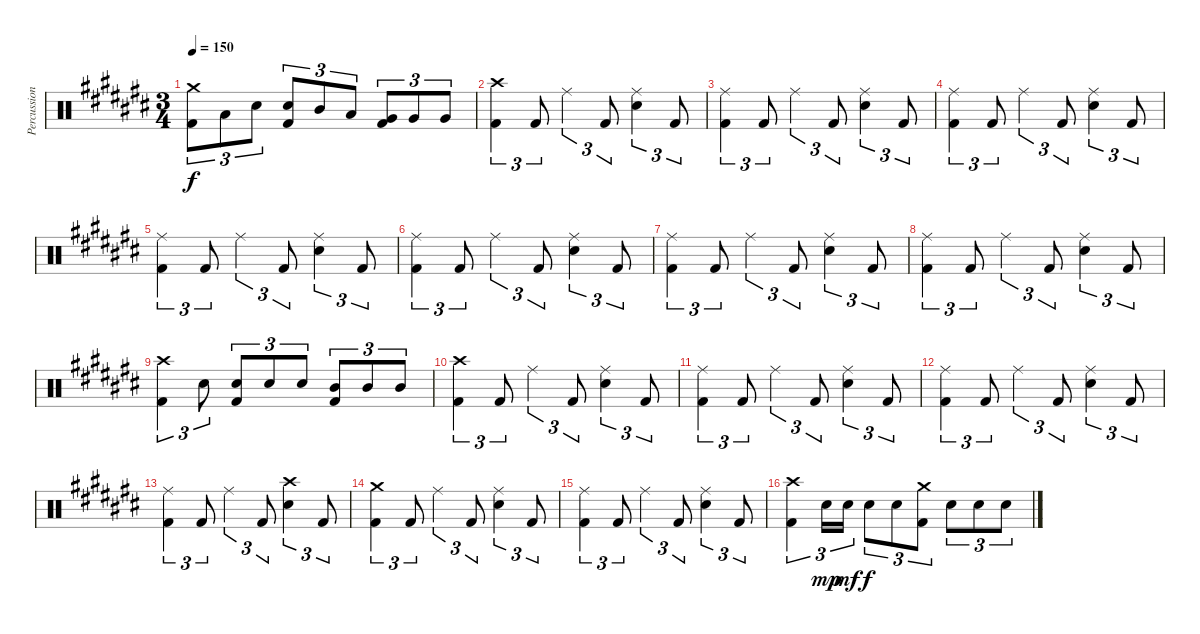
\track ("Percussion" "Percussion") {instrument percussion}
\staff {score}
\articulation defaults
\ts (3 4)
\tempo 150
\clef neutral
\ks c#
("Crash medium (hit)" "Kick (hit) 2").8{tu (3 2) dy f} "Low Tom (hit)".8{tu (3 2)} "Electric Snare (hit)".8{tu (3 2)} ("Electric Snare (hit)" "Kick (hit) 2").8{tu (3 2)} "Mid Tom (hit)".8{tu (3 2)} "Low Tom (hit)".8{tu (3 2)} ("Very Low Tom (hit)" "Kick (hit) 2").8{tu (3 2)} "Very Low Tom (hit)".8{tu (3 2)} "Very Low Tom (hit)".8{tu (3 2)} |
("Crash high (hit)" "Kick (hit) 2").4{tu (3 2)} "Kick (hit) 2".8{tu (3 2)} "Ride (middle)".4{tu (3 2)} "Kick (hit) 2".8{tu (3 2)} ("Ride (middle)" "Electric Snare (hit)").4{tu (3 2)} "Kick (hit) 2".8{tu (3 2)} |
("Ride (middle)" "Kick (hit) 2").4{tu (3 2)} "Kick (hit) 2".8{tu (3 2)} "Ride (middle)".4{tu (3 2)} "Kick (hit) 2".8{tu (3 2)} ("Ride (middle)" "Electric Snare (hit)").4{tu (3 2)} "Kick (hit) 2".8{tu (3 2)} |
("Ride (middle)" "Kick (hit) 2").4{tu (3 2)} "Kick (hit) 2".8{tu (3 2)} "Ride (middle)".4{tu (3 2)} "Kick (hit) 2".8{tu (3 2)} ("Ride (middle)" "Electric Snare (hit)").4{tu (3 2)} "Kick (hit) 2".8{tu (3 2)} |
("Ride (middle)" "Kick (hit) 2").4{tu (3 2)} "Kick (hit) 2".8{tu (3 2)} "Ride (middle)".4{tu (3 2)} "Kick (hit) 2".8{tu (3 2)} ("Ride (middle)" "Electric Snare (hit)").4{tu (3 2)} "Kick (hit) 2".8{tu (3 2)} |
("Ride (middle)" "Kick (hit) 2").4{tu (3 2)} "Kick (hit) 2".8{tu (3 2)} "Ride (middle)".4{tu (3 2)} "Kick (hit) 2".8{tu (3 2)} ("Ride (middle)" "Electric Snare (hit)").4{tu (3 2)} "Kick (hit) 2".8{tu (3 2)} |
("Ride (middle)" "Kick (hit) 2").4{tu (3 2)} "Kick (hit) 2".8{tu (3 2)} "Ride (middle)".4{tu (3 2)} "Kick (hit) 2".8{tu (3 2)} ("Ride (middle)" "Electric Snare (hit)").4{tu (3 2)} "Kick (hit) 2".8{tu (3 2)} |
("Ride (middle)" "Kick (hit) 2").4{tu (3 2)} "Kick (hit) 2".8{tu (3 2)} "Ride (middle)".4{tu (3 2)} "Kick (hit) 2".8{tu (3 2)} ("Ride (middle)" "Electric Snare (hit)").4{tu (3 2)} "Kick (hit) 2".8{tu (3 2)} |
("Crash high (hit)" "Kick (hit) 2").4{tu (3 2)} "Electric Snare (hit)".8{tu (3 2)} ("Electric Snare (hit)" "Kick (hit) 2").8{tu (3 2)} "Electric Snare (hit)".8{tu (3 2)} "Electric Snare (hit)".8{tu (3 2)} ("Mid Tom (hit)" "Kick (hit) 2").8{tu (3 2)} "Mid Tom (hit)".8{tu (3 2)} "Mid Tom (hit)".8{tu (3 2)} |
("Crash high (hit)" "Kick (hit) 2").4{tu (3 2)} "Kick (hit) 2".8{tu (3 2)} "Ride (middle)".4{tu (3 2)} "Kick (hit) 2".8{tu (3 2)} ("Ride (middle)" "Electric Snare (hit)").4{tu (3 2)} "Kick (hit) 2".8{tu (3 2)} |
("Ride (middle)" "Kick (hit) 2").4{tu (3 2)} "Kick (hit) 2".8{tu (3 2)} "Ride (middle)".4{tu (3 2)} "Kick (hit) 2".8{tu (3 2)} ("Ride (middle)" "Electric Snare (hit)").4{tu (3 2)} "Kick (hit) 2".8{tu (3 2)} |
("Ride (middle)" "Kick (hit) 2").4{tu (3 2)} "Kick (hit) 2".8{tu (3 2)} "Ride (middle)".4{tu (3 2)} "Kick (hit) 2".8{tu (3 2)} ("Ride (middle)" "Electric Snare (hit)").4{tu (3 2)} "Kick (hit) 2".8{tu (3 2)} |
("Ride (middle)" "Kick (hit) 2").4{tu (3 2)} "Kick (hit) 2".8{tu (3 2)} "Ride (middle)".4{tu (3 2)} "Kick (hit) 2".8{tu (3 2)} ("Crash high (hit)" "Electric Snare (hit)").4{tu (3 2)} "Kick (hit) 2".8{tu (3 2)} |
("Crash medium (hit)" "Kick (hit) 2").4{tu (3 2)} "Kick (hit) 2".8{tu (3 2)} "Ride (middle)".4{tu (3 2)} "Kick (hit) 2".8{tu (3 2)} ("Ride (middle)" "Electric Snare (hit)").4{tu (3 2)} "Kick (hit) 2".8{tu (3 2)} |
("Ride (middle)" "Kick (hit) 2").4{tu (3 2)} "Kick (hit) 2".8{tu (3 2)} "Ride (middle)".4{tu (3 2)} "Kick (hit) 2".8{tu (3 2)} ("Ride (middle)" "Electric Snare (hit)").4{tu (3 2)} "Kick (hit) 2".8{tu (3 2)} |
("Crash high (hit)" "Kick (hit) 2").4{tu (3 2)} "Electric Snare (hit)".16{tu (3 2) dy mp} "Electric Snare (hit)".16{tu (3 2) dy mf} "Electric Snare (hit)".8{tu (3 2) dy f} "Electric Snare (hit)".8{tu (3 2)} ("Crash medium (hit)" "Kick (hit) 2").8{tu (3 2)} "Electric Snare (hit)".8{tu (3 2)} "Electric Snare (hit)".8{tu (3 2)} "Electric Snare (hit)".8{tu (3 2)}
